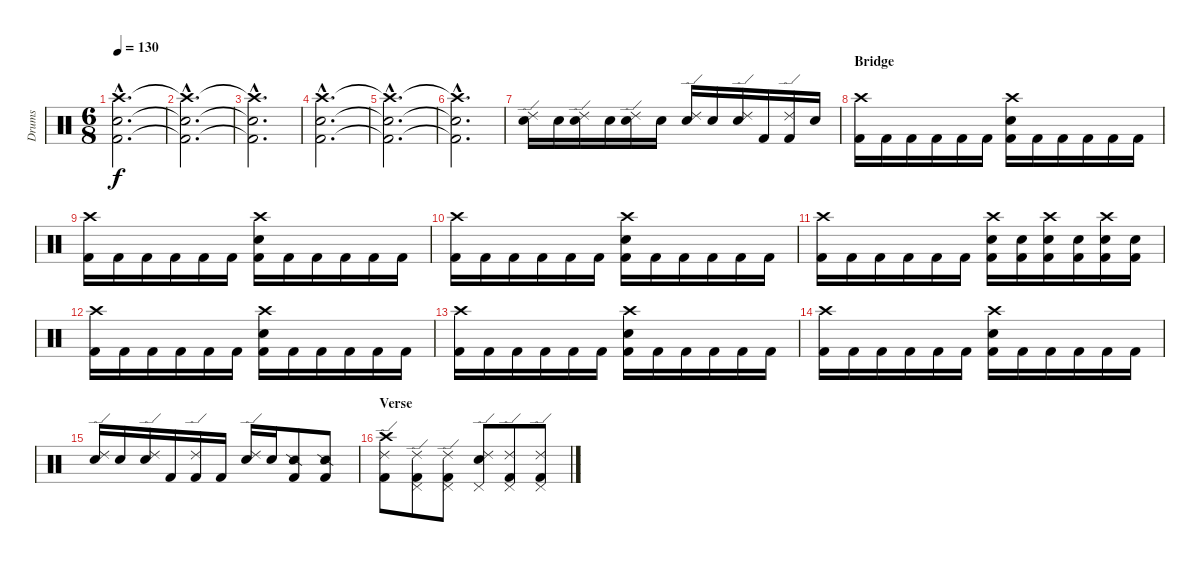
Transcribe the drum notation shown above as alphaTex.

\track ("Drums" "Drums") {instrument percussion}
\staff {score}
\articulation defaults
\ts (6 8)
\tempo 130
\clef neutral
\ks c
("Crash high (hit)"{hac t} "Electric Snare (hit)"{hac t} "Kick (hit) 2"{hac t}).2{d dy f} |
("Crash high (hit)"{hac t} "Electric Snare (hit)"{hac t} "Kick (hit) 2"{hac t}).2{d} |
("Crash high (hit)"{hac t} "Electric Snare (hit)"{hac t} "Kick (hit) 2"{hac t}).2{d} |
("Crash high (hit)"{hac} "Electric Snare (hit)"{hac} "Kick (hit) 2"{hac}).2{d} |
("Crash high (hit)"{hac t} "Electric Snare (hit)"{hac t} "Kick (hit) 2"{hac t}).2{d} |
("Crash high (hit)"{hac t} "Electric Snare (hit)"{hac t} "Kick (hit) 2"{hac t}).2{d} |
("Ride (edge) 2" "Electric Snare (hit)").16 "Electric Snare (hit)".16 ("Ride (edge) 2" "Electric Snare (hit)").16 "Electric Snare (hit)".16 ("Ride (edge) 2" "Electric Snare (hit)").16 "Electric Snare (hit)".16 ("Ride (edge) 2" "Electric Snare (hit)").16 "Electric Snare (hit)".16 ("Ride (edge) 2" "Electric Snare (hit)").16 "Kick (hit) 2".16 ("Ride (edge) 2" "Kick (hit) 2").16 "Electric Snare (hit)".16 |
\section ("" "Bridge")
("Crash high (hit)" "Kick (hit) 2").16 "Kick (hit) 2".16 "Kick (hit) 2".16 "Kick (hit) 2".16 "Kick (hit) 2".16 "Kick (hit) 2".16 ("Crash high (hit)" "Electric Snare (hit)" "Kick (hit) 2").16 "Kick (hit) 2".16 "Kick (hit) 2".16 "Kick (hit) 2".16 "Kick (hit) 2".16 "Kick (hit) 2".16 |
("Crash high (hit)" "Kick (hit) 2").16 "Kick (hit) 2".16 "Kick (hit) 2".16 "Kick (hit) 2".16 "Kick (hit) 2".16 "Kick (hit) 2".16 ("Crash high (hit)" "Electric Snare (hit)" "Kick (hit) 2").16 "Kick (hit) 2".16 "Kick (hit) 2".16 "Kick (hit) 2".16 "Kick (hit) 2".16 "Kick (hit) 2".16 |
("Crash high (hit)" "Kick (hit) 2").16 "Kick (hit) 2".16 "Kick (hit) 2".16 "Kick (hit) 2".16 "Kick (hit) 2".16 "Kick (hit) 2".16 ("Crash high (hit)" "Electric Snare (hit)" "Kick (hit) 2").16 "Kick (hit) 2".16 "Kick (hit) 2".16 "Kick (hit) 2".16 "Kick (hit) 2".16 "Kick (hit) 2".16 |
("Crash high (hit)" "Kick (hit) 2").16 "Kick (hit) 2".16 "Kick (hit) 2".16 "Kick (hit) 2".16 "Kick (hit) 2".16 "Kick (hit) 2".16 ("Crash high (hit)" "Electric Snare (hit)" "Kick (hit) 2").16 ("Electric Snare (hit)" "Kick (hit) 2").16 ("Crash high (hit)" "Electric Snare (hit)" "Kick (hit) 2").16 ("Electric Snare (hit)" "Kick (hit) 2").16 ("Crash high (hit)" "Electric Snare (hit)" "Kick (hit) 2").16 ("Electric Snare (hit)" "Kick (hit) 2").16 |
("Crash high (hit)" "Kick (hit) 2").16 "Kick (hit) 2".16 "Kick (hit) 2".16 "Kick (hit) 2".16 "Kick (hit) 2".16 "Kick (hit) 2".16 ("Crash high (hit)" "Electric Snare (hit)" "Kick (hit) 2").16 "Kick (hit) 2".16 "Kick (hit) 2".16 "Kick (hit) 2".16 "Kick (hit) 2".16 "Kick (hit) 2".16 |
("Crash high (hit)" "Kick (hit) 2").16 "Kick (hit) 2".16 "Kick (hit) 2".16 "Kick (hit) 2".16 "Kick (hit) 2".16 "Kick (hit) 2".16 ("Crash high (hit)" "Electric Snare (hit)" "Kick (hit) 2").16 "Kick (hit) 2".16 "Kick (hit) 2".16 "Kick (hit) 2".16 "Kick (hit) 2".16 "Kick (hit) 2".16 |
("Crash high (hit)" "Kick (hit) 2").16 "Kick (hit) 2".16 "Kick (hit) 2".16 "Kick (hit) 2".16 "Kick (hit) 2".16 "Kick (hit) 2".16 ("Crash high (hit)" "Electric Snare (hit)" "Kick (hit) 2").16 "Kick (hit) 2".16 "Kick (hit) 2".16 "Kick (hit) 2".16 "Kick (hit) 2".16 "Kick (hit) 2".16 |
("Ride (edge) 2" "Electric Snare (hit)").16 "Electric Snare (hit)".16 ("Ride (edge) 2" "Electric Snare (hit)").16 "Kick (hit) 2".16 ("Ride (edge) 2" "Kick (hit) 2").16 "Kick (hit) 2".16 ("Ride (edge) 2" "Electric Snare (hit)").16 "Electric Snare (hit)".16 ("Snare (side stick) 2" "Kick (hit) 2").8 ("Snare (side stick) 2" "Kick (hit) 2").8 |
\section ("" "Verse")
("Ride (edge) 2" "Crash high (hit)" "Kick (hit) 2").8 ("Ride (edge) 2" "Pedal Hi-Hat (hit)" "Kick (hit) 2").8 ("Ride (edge) 2" "Pedal Hi-Hat (hit)" "Kick (hit) 2").8 ("Ride (edge) 2" "Pedal Hi-Hat (hit)" "Electric Snare (hit)").8 ("Ride (edge) 2" "Pedal Hi-Hat (hit)" "Kick (hit) 2").8 ("Ride (edge) 2" "Pedal Hi-Hat (hit)" "Kick (hit) 2").8
